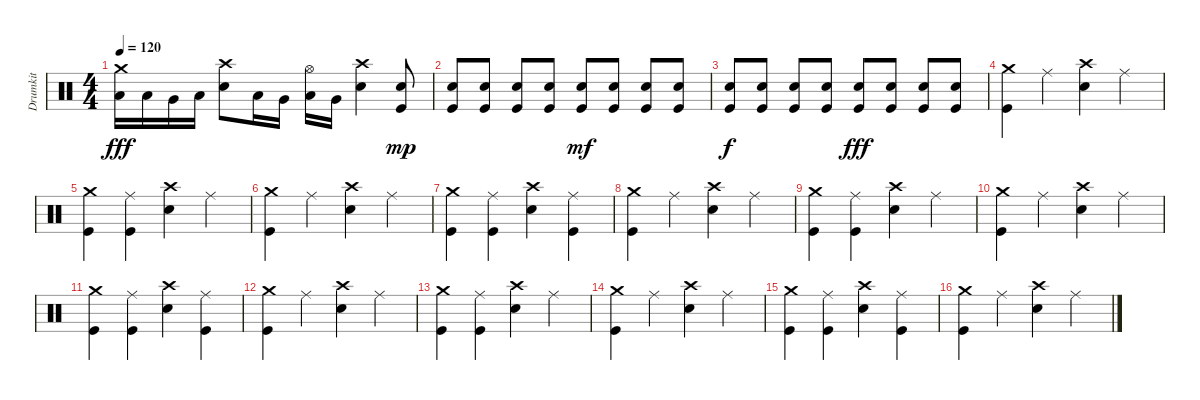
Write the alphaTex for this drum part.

\track ("Drumkit" "Drumkit") {instrument percussion}
\staff {score}
\articulation defaults
\ts (4 4)
\tempo 120
\clef neutral
\ks c
("Low Floor Tom (hit)" "Crash medium (hit)").16{dy fff} "Low Floor Tom (hit)".16 "Very Low Tom (hit)".16 "Low Floor Tom (hit)".16 ("Snare (hit) 2" "Crash high (hit)").8 "Low Floor Tom (hit)".16 "Very Low Tom (hit)".16 ("Low Floor Tom (hit)" "Hi-Hat (open)").16 "Very Low Tom (hit)".16 ("Snare (hit) 2" "Crash high (hit)").4 ("Snare (hit) 2" "Kick (hit)").8{dy mp} |
("Snare (hit) 2" "Kick (hit)").8 ("Snare (hit) 2" "Kick (hit)").8 ("Snare (hit) 2" "Kick (hit)").8 ("Snare (hit) 2" "Kick (hit)").8 ("Snare (hit) 2" "Kick (hit)").8{dy mf} ("Snare (hit) 2" "Kick (hit)").8 ("Snare (hit) 2" "Kick (hit)").8 ("Snare (hit) 2" "Kick (hit)").8 |
("Snare (hit) 2" "Kick (hit)").8{dy f} ("Snare (hit) 2" "Kick (hit)").8 ("Snare (hit) 2" "Kick (hit)").8 ("Snare (hit) 2" "Kick (hit)").8 ("Snare (hit) 2" "Kick (hit)").8{dy fff} ("Snare (hit) 2" "Kick (hit)").8 ("Snare (hit) 2" "Kick (hit)").8 ("Snare (hit) 2" "Kick (hit)").8 |
("Kick (hit)" "Crash medium (hit)").4 "Ride (middle)".4 ("Snare (hit) 2" "Crash high (hit)").4 "Ride (middle)".4 |
("Kick (hit)" "Crash medium (hit)").4 ("Ride (middle)" "Kick (hit)").4 ("Snare (hit) 2" "Crash high (hit)").4 "Ride (middle)".4 |
("Kick (hit)" "Crash medium (hit)").4 "Ride (middle)".4 ("Snare (hit) 2" "Crash high (hit)").4 "Ride (middle)".4 |
("Kick (hit)" "Crash medium (hit)").4 ("Ride (middle)" "Kick (hit)").4 ("Snare (hit) 2" "Crash high (hit)").4 ("Ride (middle)" "Kick (hit)").4 |
("Kick (hit)" "Crash medium (hit)").4 "Ride (middle)".4 ("Snare (hit) 2" "Crash high (hit)").4 "Ride (middle)".4 |
("Kick (hit)" "Crash medium (hit)").4 ("Ride (middle)" "Kick (hit)").4 ("Snare (hit) 2" "Crash high (hit)").4 "Ride (middle)".4 |
("Kick (hit)" "Crash medium (hit)").4 "Ride (middle)".4 ("Snare (hit) 2" "Crash high (hit)").4 "Ride (middle)".4 |
("Kick (hit)" "Crash medium (hit)").4 ("Ride (middle)" "Kick (hit)").4 ("Snare (hit) 2" "Crash high (hit)").4 ("Ride (middle)" "Kick (hit)").4 |
("Kick (hit)" "Crash medium (hit)").4 "Ride (middle)".4 ("Snare (hit) 2" "Crash high (hit)").4 "Ride (middle)".4 |
("Kick (hit)" "Crash medium (hit)").4 ("Ride (middle)" "Kick (hit)").4 ("Snare (hit) 2" "Crash high (hit)").4 "Ride (middle)".4 |
("Kick (hit)" "Crash medium (hit)").4 "Ride (middle)".4 ("Snare (hit) 2" "Crash high (hit)").4 "Ride (middle)".4 |
("Kick (hit)" "Crash medium (hit)").4 ("Ride (middle)" "Kick (hit)").4 ("Snare (hit) 2" "Crash high (hit)").4 ("Ride (middle)" "Kick (hit)").4 |
("Kick (hit)" "Crash medium (hit)").4 "Ride (middle)".4 ("Snare (hit) 2" "Crash high (hit)").4 "Ride (middle)".4
